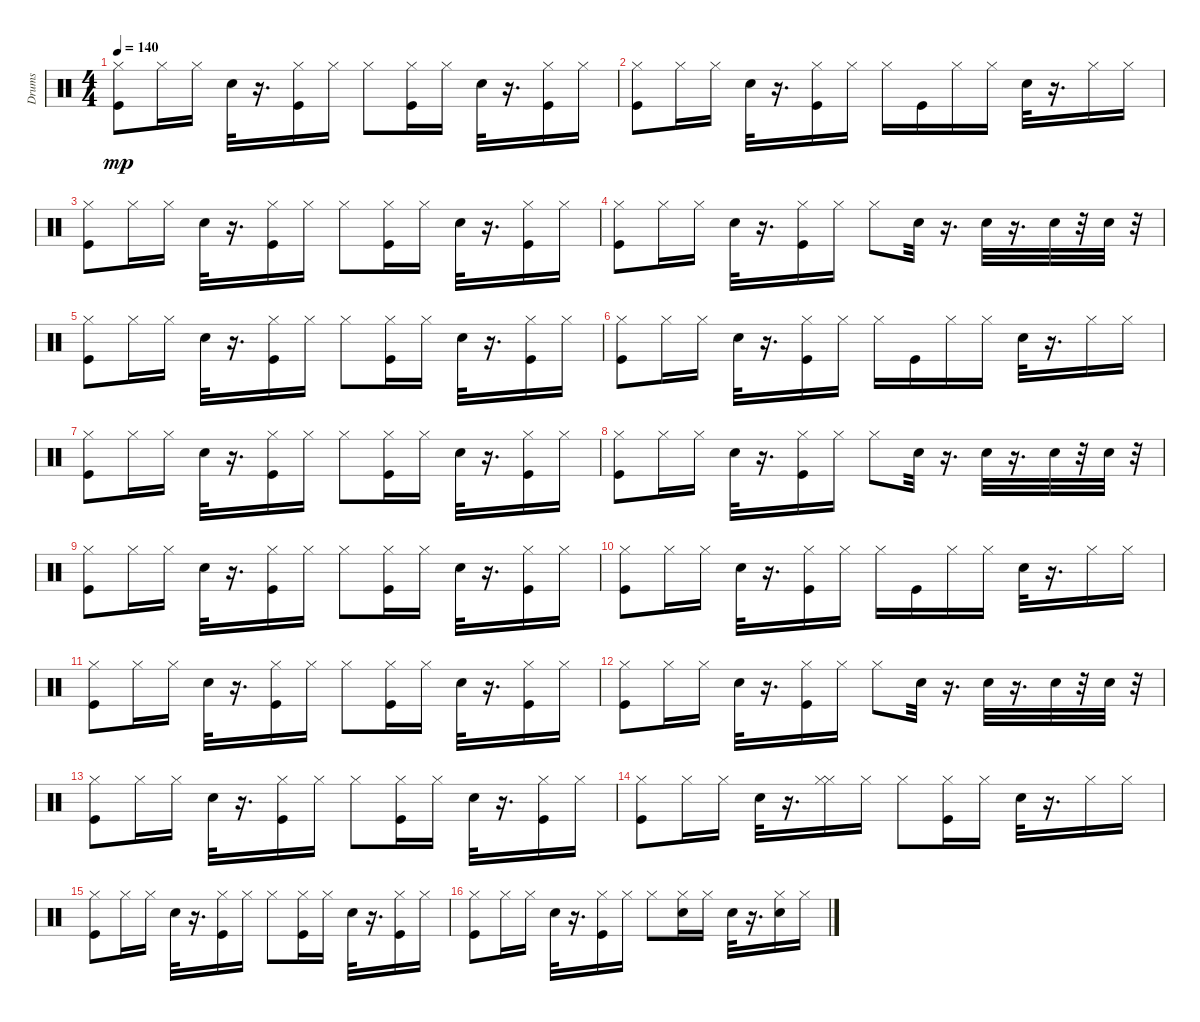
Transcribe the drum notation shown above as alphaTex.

\track ("Drums" "Drums") {instrument percussion}
\staff {score}
\articulation defaults
\ts (4 4)
\tempo 140
\clef neutral
\ks c
("Kick (hit)" "Hi-Hat (closed)").8{dy mp} "Hi-Hat (closed)".16 "Hi-Hat (closed)".16 "Electric Snare (hit)".32 r.16{d} ("Kick (hit)" "Hi-Hat (closed)").16 "Hi-Hat (closed)".16 "Hi-Hat (closed)".8 ("Kick (hit)" "Hi-Hat (closed)").16 "Hi-Hat (closed)".16 "Electric Snare (hit)".32 r.16{d} ("Kick (hit)" "Hi-Hat (closed)").16 "Hi-Hat (closed)".16 |
("Kick (hit)" "Hi-Hat (closed)").8{volume 12} "Hi-Hat (closed)".16 "Hi-Hat (closed)".16 "Electric Snare (hit)".32 r.16{d} ("Kick (hit)" "Hi-Hat (closed)").16 "Hi-Hat (closed)".16 "Hi-Hat (closed)".16 "Kick (hit)".16 "Hi-Hat (closed)".16 "Hi-Hat (closed)".16 "Electric Snare (hit)".32 r.16{d} "Hi-Hat (closed)".16 "Hi-Hat (closed)".16 |
("Kick (hit)" "Hi-Hat (closed)").8{volume 12} "Hi-Hat (closed)".16 "Hi-Hat (closed)".16 "Electric Snare (hit)".32 r.16{d} ("Kick (hit)" "Hi-Hat (closed)").16 "Hi-Hat (closed)".16 "Hi-Hat (closed)".8 ("Kick (hit)" "Hi-Hat (closed)").16 "Hi-Hat (closed)".16 "Electric Snare (hit)".32 r.16{d} ("Kick (hit)" "Hi-Hat (closed)").16 "Hi-Hat (closed)".16 |
("Kick (hit)" "Hi-Hat (closed)").8{volume 12} "Hi-Hat (closed)".16 "Hi-Hat (closed)".16 "Electric Snare (hit)".32 r.16{d} ("Kick (hit)" "Hi-Hat (closed)").16 "Hi-Hat (closed)".16 "Hi-Hat (closed)".8 "Electric Snare (hit)".32 r.16{d} "Electric Snare (hit)".32 r.16{d} "Electric Snare (hit)".32 r.32 "Electric Snare (hit)".32 r.32 |
("Kick (hit)" "Hi-Hat (closed)").8 "Hi-Hat (closed)".16 "Hi-Hat (closed)".16 "Electric Snare (hit)".32 r.16{d} ("Kick (hit)" "Hi-Hat (closed)").16 "Hi-Hat (closed)".16 "Hi-Hat (closed)".8 ("Kick (hit)" "Hi-Hat (closed)").16 "Hi-Hat (closed)".16 "Electric Snare (hit)".32 r.16{d} ("Kick (hit)" "Hi-Hat (closed)").16 "Hi-Hat (closed)".16 |
("Kick (hit)" "Hi-Hat (closed)").8{volume 12} "Hi-Hat (closed)".16 "Hi-Hat (closed)".16 "Electric Snare (hit)".32 r.16{d} ("Kick (hit)" "Hi-Hat (closed)").16 "Hi-Hat (closed)".16 "Hi-Hat (closed)".16 "Kick (hit)".16 "Hi-Hat (closed)".16 "Hi-Hat (closed)".16 "Electric Snare (hit)".32 r.16{d} "Hi-Hat (closed)".16 "Hi-Hat (closed)".16 |
("Kick (hit)" "Hi-Hat (closed)").8{volume 12} "Hi-Hat (closed)".16 "Hi-Hat (closed)".16 "Electric Snare (hit)".32 r.16{d} ("Kick (hit)" "Hi-Hat (closed)").16 "Hi-Hat (closed)".16 "Hi-Hat (closed)".8 ("Kick (hit)" "Hi-Hat (closed)").16 "Hi-Hat (closed)".16 "Electric Snare (hit)".32 r.16{d} ("Kick (hit)" "Hi-Hat (closed)").16 "Hi-Hat (closed)".16 |
("Kick (hit)" "Hi-Hat (closed)").8{volume 12} "Hi-Hat (closed)".16 "Hi-Hat (closed)".16 "Electric Snare (hit)".32 r.16{d} ("Kick (hit)" "Hi-Hat (closed)").16 "Hi-Hat (closed)".16 "Hi-Hat (closed)".8 "Electric Snare (hit)".32 r.16{d} "Electric Snare (hit)".32 r.16{d} "Electric Snare (hit)".32 r.32 "Electric Snare (hit)".32 r.32 |
("Kick (hit)" "Hi-Hat (closed)").8 "Hi-Hat (closed)".16 "Hi-Hat (closed)".16 "Electric Snare (hit)".32 r.16{d} ("Kick (hit)" "Hi-Hat (closed)").16 "Hi-Hat (closed)".16 "Hi-Hat (closed)".8 ("Kick (hit)" "Hi-Hat (closed)").16 "Hi-Hat (closed)".16 "Electric Snare (hit)".32 r.16{d} ("Kick (hit)" "Hi-Hat (closed)").16 "Hi-Hat (closed)".16 |
("Kick (hit)" "Hi-Hat (closed)").8{volume 12} "Hi-Hat (closed)".16 "Hi-Hat (closed)".16 "Electric Snare (hit)".32 r.16{d} ("Kick (hit)" "Hi-Hat (closed)").16 "Hi-Hat (closed)".16 "Hi-Hat (closed)".16 "Kick (hit)".16 "Hi-Hat (closed)".16 "Hi-Hat (closed)".16 "Electric Snare (hit)".32 r.16{d} "Hi-Hat (closed)".16 "Hi-Hat (closed)".16 |
("Kick (hit)" "Hi-Hat (closed)").8{volume 12} "Hi-Hat (closed)".16 "Hi-Hat (closed)".16 "Electric Snare (hit)".32 r.16{d} ("Kick (hit)" "Hi-Hat (closed)").16 "Hi-Hat (closed)".16 "Hi-Hat (closed)".8 ("Kick (hit)" "Hi-Hat (closed)").16 "Hi-Hat (closed)".16 "Electric Snare (hit)".32 r.16{d} ("Kick (hit)" "Hi-Hat (closed)").16 "Hi-Hat (closed)".16 |
("Kick (hit)" "Hi-Hat (closed)").8{volume 12} "Hi-Hat (closed)".16 "Hi-Hat (closed)".16 "Electric Snare (hit)".32 r.16{d} ("Kick (hit)" "Hi-Hat (closed)").16 "Hi-Hat (closed)".16 "Hi-Hat (closed)".8 "Electric Snare (hit)".32 r.16{d} "Electric Snare (hit)".32 r.16{d} "Electric Snare (hit)".32 r.32 "Electric Snare (hit)".32 r.32 |
("Kick (hit)" "Hi-Hat (closed)").8{volume 12} "Hi-Hat (closed)".16 "Hi-Hat (closed)".16 "Electric Snare (hit)".32 r.16{d} ("Kick (hit)" "Hi-Hat (closed)").16 "Hi-Hat (closed)".16 "Hi-Hat (closed)".8 ("Kick (hit)" "Hi-Hat (closed)").16 "Hi-Hat (closed)".16 "Electric Snare (hit)".32 r.16{d} ("Kick (hit)" "Hi-Hat (closed)").16 "Hi-Hat (closed)".16 |
("Kick (hit)" "Hi-Hat (closed)").8{volume 12} "Hi-Hat (closed)".16 "Hi-Hat (closed)".16 "Electric Snare (hit)".32 r.16{d} ("Hi-Hat (closed)" "Hi-Hat (closed)").16 "Hi-Hat (closed)".16 "Hi-Hat (closed)".8 ("Kick (hit)" "Hi-Hat (closed)").16 "Hi-Hat (closed)".16 "Electric Snare (hit)".32 r.16{d} "Hi-Hat (closed)".16 "Hi-Hat (closed)".16 |
("Kick (hit)" "Hi-Hat (closed)").8{volume 12} "Hi-Hat (closed)".16 "Hi-Hat (closed)".16 "Electric Snare (hit)".32 r.16{d} ("Kick (hit)" "Hi-Hat (closed)").16 "Hi-Hat (closed)".16 "Hi-Hat (closed)".8 ("Kick (hit)" "Hi-Hat (closed)").16 "Hi-Hat (closed)".16 "Electric Snare (hit)".32 r.16{d} ("Kick (hit)" "Hi-Hat (closed)").16 "Hi-Hat (closed)".16 |
("Kick (hit)" "Hi-Hat (closed)").8{volume 12} "Hi-Hat (closed)".16 "Hi-Hat (closed)".16 "Electric Snare (hit)".32 r.16{d} ("Kick (hit)" "Hi-Hat (closed)").16 "Hi-Hat (closed)".16 "Hi-Hat (closed)".8 ("Snare (hit)" "Hi-Hat (closed)").16 "Hi-Hat (closed)".16 "Electric Snare (hit)".32 r.16{d} ("Electric Snare (hit)" "Hi-Hat (closed)").16 "Hi-Hat (closed)".16
